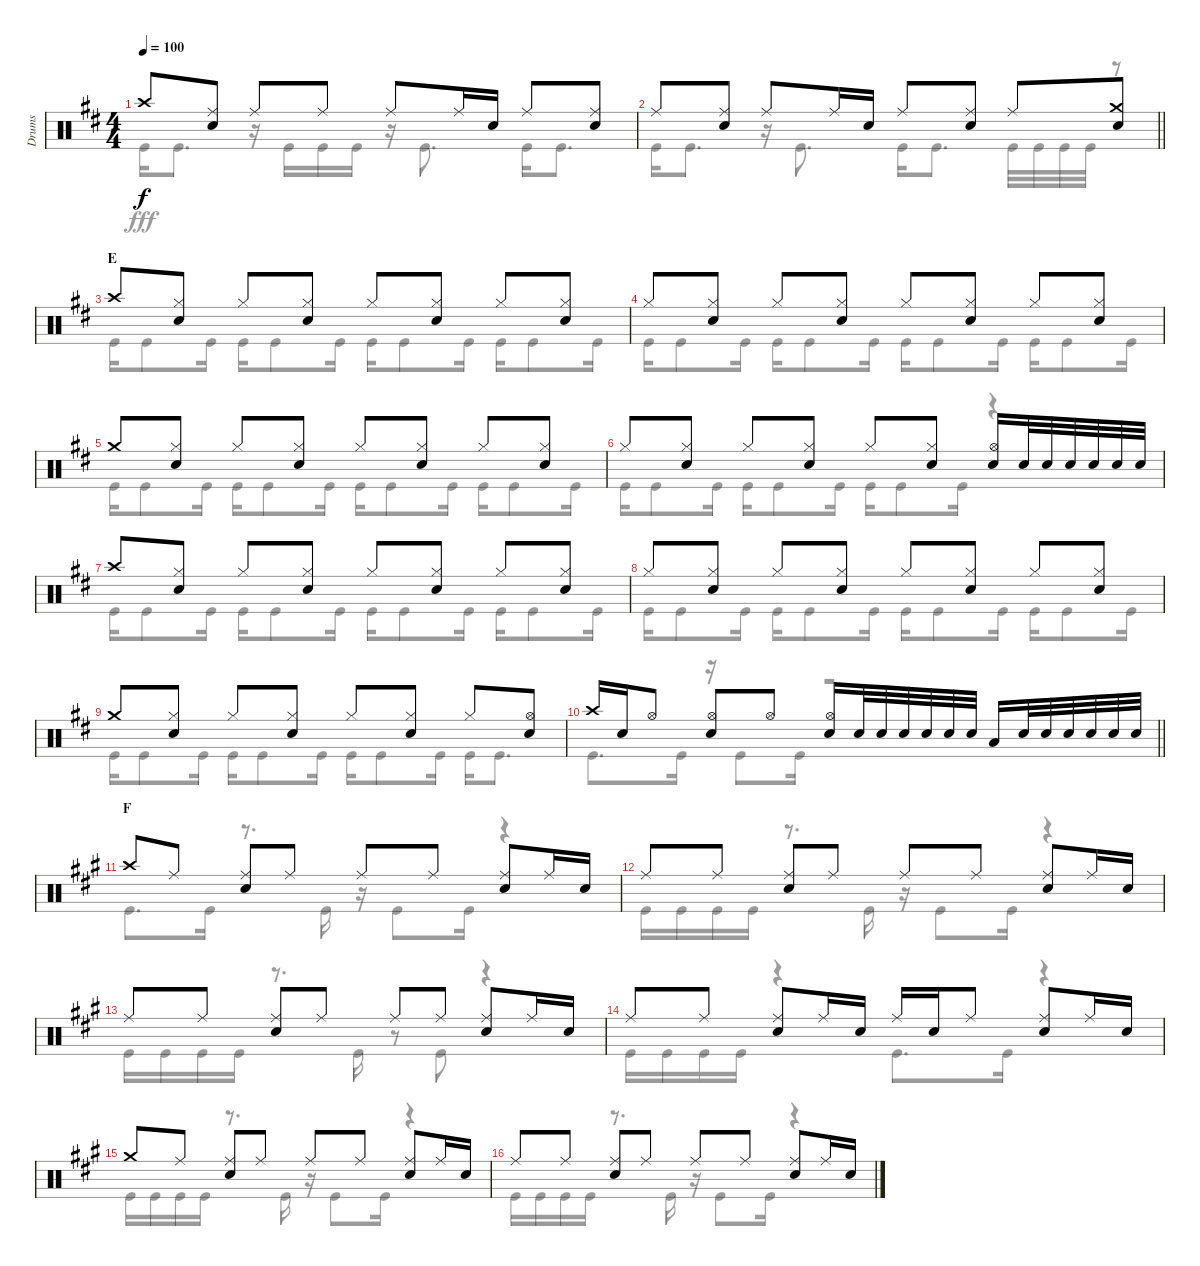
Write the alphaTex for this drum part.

\track ("Drums" "Drums") {instrument percussion}
\staff {score}
\articulation defaults
\voice
\ts (4 4)
\tempo 100
\clef neutral
\ks d "Crash high (hit)".8{dy f}
("Ride (middle)" "Snare (hit) 2").8 "Ride (middle)".8 "Ride (middle)".8 "Ride (middle)".8 "Ride (middle)".16 "Snare (hit) 2".16 "Ride (middle)".8 ("Ride (middle)" "Snare (hit) 2").8 |
\barLineRight lightlight "Ride (middle)".8
("Ride (middle)" "Snare (hit) 2").8 "Ride (middle)".8 "Ride (middle)".16 "Snare (hit) 2".16 "Ride (middle)".8 ("Ride (middle)" "Snare (hit) 2").8 "Ride (middle)".8 ("Crash medium (hit)" "Snare (hit) 2").8 |
\section ("" "E")
"Crash high (hit)".8 ("Hi-Hat (closed)" "Snare (hit) 2").8 "Hi-Hat (closed)".8 ("Hi-Hat (closed)" "Snare (hit) 2").8 "Hi-Hat (closed)".8 ("Hi-Hat (closed)" "Snare (hit) 2").8 "Hi-Hat (closed)".8 ("Hi-Hat (closed)" "Snare (hit) 2").8 |
"Hi-Hat (closed)".8 ("Hi-Hat (closed)" "Snare (hit) 2").8 "Hi-Hat (closed)".8 ("Hi-Hat (closed)" "Snare (hit) 2").8 "Hi-Hat (closed)".8 ("Hi-Hat (closed)" "Snare (hit) 2").8 "Hi-Hat (closed)".8 ("Hi-Hat (closed)" "Snare (hit) 2").8 |
"Crash medium (hit)".8 ("Hi-Hat (closed)" "Snare (hit) 2").8 "Hi-Hat (closed)".8 ("Hi-Hat (closed)" "Snare (hit) 2").8 "Hi-Hat (closed)".8 ("Hi-Hat (closed)" "Snare (hit) 2").8 "Hi-Hat (closed)".8 ("Hi-Hat (closed)" "Snare (hit) 2").8 |
"Hi-Hat (closed)".8 ("Hi-Hat (closed)" "Snare (hit) 2").8 "Hi-Hat (closed)".8 ("Hi-Hat (closed)" "Snare (hit) 2").8 "Hi-Hat (closed)".8 ("Hi-Hat (closed)" "Snare (hit) 2").8 ("Hi-Hat (open)" "Snare (hit) 2").16 "Snare (hit) 2".32 "Snare (hit) 2".32 "Snare (hit) 2".32 "Snare (hit) 2".32 "Snare (hit) 2".32 "Snare (hit) 2".32 |
"Crash high (hit)".8 ("Hi-Hat (closed)" "Snare (hit) 2").8 "Hi-Hat (closed)".8 ("Hi-Hat (closed)" "Snare (hit) 2").8 "Hi-Hat (closed)".8 ("Hi-Hat (closed)" "Snare (hit) 2").8 "Hi-Hat (closed)".8 ("Hi-Hat (closed)" "Snare (hit) 2").8 |
"Hi-Hat (closed)".8 ("Hi-Hat (closed)" "Snare (hit) 2").8 "Hi-Hat (closed)".8 ("Hi-Hat (closed)" "Snare (hit) 2").8 "Hi-Hat (closed)".8 ("Hi-Hat (closed)" "Snare (hit) 2").8 "Hi-Hat (closed)".8 ("Hi-Hat (closed)" "Snare (hit) 2").8 |
"Crash medium (hit)".8 ("Hi-Hat (closed)" "Snare (hit) 2").8 "Hi-Hat (closed)".8 ("Hi-Hat (closed)" "Snare (hit) 2").8 "Hi-Hat (closed)".8 ("Hi-Hat (closed)" "Snare (hit) 2").8 "Hi-Hat (closed)".8 ("Hi-Hat (open)" "Snare (hit) 2").8 |
\barLineRight lightlight "Crash high (hit)".16 "Snare (hit) 2".16 "Hi-Hat (open)".8
("Hi-Hat (open)" "Snare (hit) 2").8 "Hi-Hat (open)".8 ("Hi-Hat (open)" "Snare (hit) 2").16 "Snare (hit) 2".32 "Snare (hit) 2".32 "Snare (hit) 2".32 "Snare (hit) 2".32 "Snare (hit) 2".32 "Snare (hit) 2".32 "Low Tom (hit)".16 "Snare (hit) 2".32 "Snare (hit) 2".32 "Snare (hit) 2".32 "Snare (hit) 2".32 "Snare (hit) 2".32 "Snare (hit) 2".32 |
\section ("" "F")
\ks a "Crash high (hit)".8 "Ride (middle)".8
("Ride (middle)" "Snare (hit) 2").8 "Ride (middle)".8 "Ride (middle)".8 "Ride (middle)".8 ("Ride (middle)" "Snare (hit) 2").8 "Ride (middle)".16 "Snare (hit) 2".16 |
"Ride (middle)".8 "Ride (middle)".8 ("Ride (middle)" "Snare (hit) 2").8 "Ride (middle)".8 "Ride (middle)".8 "Ride (middle)".8 ("Ride (middle)" "Snare (hit) 2").8 "Ride (middle)".16 "Snare (hit) 2".16 |
"Ride (middle)".8 "Ride (middle)".8 ("Ride (middle)" "Snare (hit) 2").8 "Ride (middle)".8 "Ride (middle)".8 "Ride (middle)".8 ("Ride (middle)" "Snare (hit) 2").8 "Ride (middle)".16 "Snare (hit) 2".16 |
"Ride (middle)".8 "Ride (middle)".8 ("Ride (middle)" "Snare (hit) 2").8 "Ride (middle)".16 "Snare (hit) 2".16 "Ride (middle)".16 "Snare (hit) 2".16 "Ride (middle)".8 ("Ride (middle)" "Snare (hit) 2").8 "Ride (middle)".16 "Snare (hit) 2".16 |
"Crash medium (hit)".8 "Ride (middle)".8 ("Ride (middle)" "Snare (hit) 2").8 "Ride (middle)".8 "Ride (middle)".8 "Ride (middle)".8 ("Ride (middle)" "Snare (hit) 2").8 "Ride (middle)".16 "Snare (hit) 2".16 |
"Ride (middle)".8 "Ride (middle)".8 ("Ride (middle)" "Snare (hit) 2").8 "Ride (middle)".8 "Ride (middle)".8 "Ride (middle)".8 ("Ride (middle)" "Snare (hit) 2").8 "Ride (middle)".16 "Snare (hit) 2".16
\voice
\clef neutral
\ottava regular
\simile none
\ks d "Kick (hit)".16{dy fff} "Kick (hit)".8{d}
r.16 "Kick (hit)".16 "Kick (hit)".16 "Kick (hit)".16 r.16 "Kick (hit)".8{d} "Kick (hit)".16 "Kick (hit)".8{d} |
\barLineRight lightlight "Kick (hit)".16 "Kick (hit)".8{d}
r.16 "Kick (hit)".8{d} "Kick (hit)".16 "Kick (hit)".8{d} "Kick (hit)".32 "Kick (hit)".32 "Kick (hit)".32 "Kick (hit)".32 r.8 |
"Kick (hit)".16 "Kick (hit)".8 "Kick (hit)".16 "Kick (hit)".16 "Kick (hit)".8 "Kick (hit)".16 "Kick (hit)".16 "Kick (hit)".8 "Kick (hit)".16 "Kick (hit)".16 "Kick (hit)".8 "Kick (hit)".16 |
"Kick (hit)".16 "Kick (hit)".8 "Kick (hit)".16 "Kick (hit)".16 "Kick (hit)".8 "Kick (hit)".16 "Kick (hit)".16 "Kick (hit)".8 "Kick (hit)".16 "Kick (hit)".16 "Kick (hit)".8 "Kick (hit)".16 |
"Kick (hit)".16 "Kick (hit)".8 "Kick (hit)".16 "Kick (hit)".16 "Kick (hit)".8 "Kick (hit)".16 "Kick (hit)".16 "Kick (hit)".8 "Kick (hit)".16 "Kick (hit)".16 "Kick (hit)".8 "Kick (hit)".16 |
"Kick (hit)".16 "Kick (hit)".8 "Kick (hit)".16 "Kick (hit)".16 "Kick (hit)".8 "Kick (hit)".16 "Kick (hit)".16 "Kick (hit)".8 "Kick (hit)".16 r.4 |
"Kick (hit)".16 "Kick (hit)".8 "Kick (hit)".16 "Kick (hit)".16 "Kick (hit)".8 "Kick (hit)".16 "Kick (hit)".16 "Kick (hit)".8 "Kick (hit)".16 "Kick (hit)".16 "Kick (hit)".8 "Kick (hit)".16 |
"Kick (hit)".16 "Kick (hit)".8 "Kick (hit)".16 "Kick (hit)".16 "Kick (hit)".8 "Kick (hit)".16 "Kick (hit)".16 "Kick (hit)".8 "Kick (hit)".16 "Kick (hit)".16 "Kick (hit)".8 "Kick (hit)".16 |
"Kick (hit)".16 "Kick (hit)".8 "Kick (hit)".16 "Kick (hit)".16 "Kick (hit)".8 "Kick (hit)".16 "Kick (hit)".16 "Kick (hit)".8 "Kick (hit)".16 "Kick (hit)".16 "Kick (hit)".8{d} |
\barLineRight lightlight "Kick (hit)".8{d} "Kick (hit)".16
r.16 "Kick (hit)".8 "Kick (hit)".16 r.2 |
\ks a "Kick (hit)".8{d} "Kick (hit)".16
r.8{d} "Kick (hit)".16 r.16 "Kick (hit)".8 "Kick (hit)".16 r.4 |
"Kick (hit)".16 "Kick (hit)".16 "Kick (hit)".16 "Kick (hit)".16 r.8{d} "Kick (hit)".16 r.16 "Kick (hit)".8 "Kick (hit)".16 r.4 |
"Kick (hit)".16 "Kick (hit)".16 "Kick (hit)".16 "Kick (hit)".16 r.8{d} "Kick (hit)".16 r.8 "Kick (hit)".8 r.4 |
"Kick (hit)".16 "Kick (hit)".16 "Kick (hit)".16 "Kick (hit)".16 r.4 "Kick (hit)".8{d} "Kick (hit)".16 r.4 |
"Kick (hit)".16 "Kick (hit)".16 "Kick (hit)".16 "Kick (hit)".16 r.8{d} "Kick (hit)".16 r.16 "Kick (hit)".8 "Kick (hit)".16 r.4 |
"Kick (hit)".16 "Kick (hit)".16 "Kick (hit)".16 "Kick (hit)".16 r.8{d} "Kick (hit)".16 r.16 "Kick (hit)".8 "Kick (hit)".16 r.4
